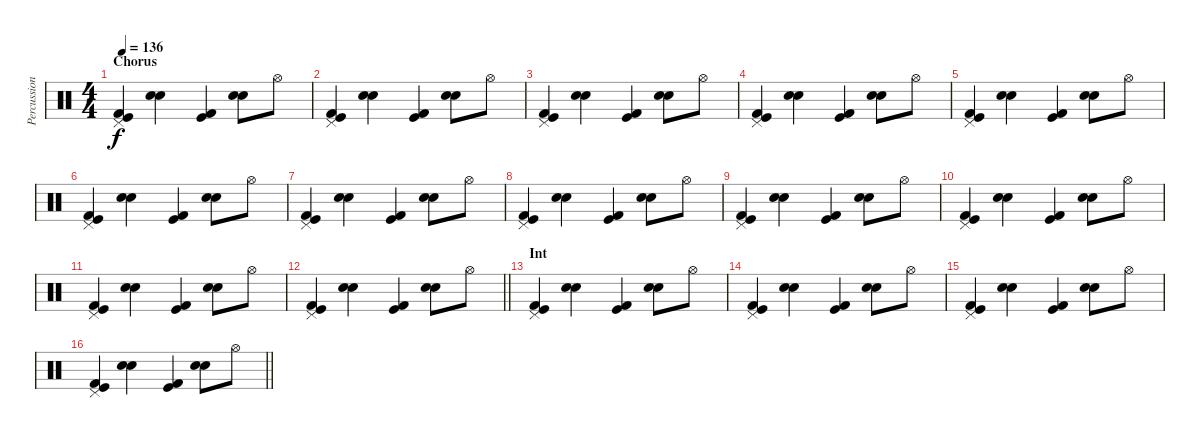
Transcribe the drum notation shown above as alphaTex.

\track ("Percussion" "Percussion") {instrument percussion}
\staff {score}
\articulation defaults
\ts (4 4)
\section ("" "Chorus")
\tempo 136
\clef neutral
\ks c
("Pedal Hi-Hat (hit)" "Kick (hit)" "Kick (hit) 2").4{dy f} ("Snare (hit) 2" "Electric Snare (hit)").4 ("Kick (hit)" "Kick (hit) 2").4 ("Snare (hit) 2" "Electric Snare (hit)").8 "Hi-Hat (open)".8 |
("Pedal Hi-Hat (hit)" "Kick (hit)" "Kick (hit) 2").4 ("Snare (hit) 2" "Electric Snare (hit)").4 ("Kick (hit)" "Kick (hit) 2").4 ("Snare (hit) 2" "Electric Snare (hit)").8 "Hi-Hat (open)".8 |
("Pedal Hi-Hat (hit)" "Kick (hit)" "Kick (hit) 2").4 ("Snare (hit) 2" "Electric Snare (hit)").4 ("Kick (hit)" "Kick (hit) 2").4 ("Snare (hit) 2" "Electric Snare (hit)").8 "Hi-Hat (open)".8 |
("Pedal Hi-Hat (hit)" "Kick (hit)" "Kick (hit) 2").4 ("Snare (hit) 2" "Electric Snare (hit)").4 ("Kick (hit)" "Kick (hit) 2").4 ("Snare (hit) 2" "Electric Snare (hit)").8 "Hi-Hat (open)".8 |
("Pedal Hi-Hat (hit)" "Kick (hit)" "Kick (hit) 2").4 ("Snare (hit) 2" "Electric Snare (hit)").4 ("Kick (hit)" "Kick (hit) 2").4 ("Snare (hit) 2" "Electric Snare (hit)").8 "Hi-Hat (open)".8 |
("Pedal Hi-Hat (hit)" "Kick (hit)" "Kick (hit) 2").4 ("Snare (hit) 2" "Electric Snare (hit)").4 ("Kick (hit)" "Kick (hit) 2").4 ("Snare (hit) 2" "Electric Snare (hit)").8 "Hi-Hat (open)".8 |
("Pedal Hi-Hat (hit)" "Kick (hit)" "Kick (hit) 2").4 ("Snare (hit) 2" "Electric Snare (hit)").4 ("Kick (hit)" "Kick (hit) 2").4 ("Snare (hit) 2" "Electric Snare (hit)").8 "Hi-Hat (open)".8 |
("Pedal Hi-Hat (hit)" "Kick (hit)" "Kick (hit) 2").4 ("Snare (hit) 2" "Electric Snare (hit)").4 ("Kick (hit)" "Kick (hit) 2").4 ("Snare (hit) 2" "Electric Snare (hit)").8 "Hi-Hat (open)".8 |
("Pedal Hi-Hat (hit)" "Kick (hit)" "Kick (hit) 2").4 ("Snare (hit) 2" "Electric Snare (hit)").4 ("Kick (hit)" "Kick (hit) 2").4 ("Snare (hit) 2" "Electric Snare (hit)").8 "Hi-Hat (open)".8 |
("Pedal Hi-Hat (hit)" "Kick (hit)" "Kick (hit) 2").4 ("Snare (hit) 2" "Electric Snare (hit)").4 ("Kick (hit)" "Kick (hit) 2").4 ("Snare (hit) 2" "Electric Snare (hit)").8 "Hi-Hat (open)".8 |
("Pedal Hi-Hat (hit)" "Kick (hit)" "Kick (hit) 2").4 ("Snare (hit) 2" "Electric Snare (hit)").4 ("Kick (hit)" "Kick (hit) 2").4 ("Snare (hit) 2" "Electric Snare (hit)").8 "Hi-Hat (open)".8 |
\barLineRight lightlight
("Pedal Hi-Hat (hit)" "Kick (hit)" "Kick (hit) 2").4 ("Snare (hit) 2" "Electric Snare (hit)").4 ("Kick (hit)" "Kick (hit) 2").4 ("Snare (hit) 2" "Electric Snare (hit)").8 "Hi-Hat (open)".8 |
\section ("" "Int")
("Pedal Hi-Hat (hit)" "Kick (hit)" "Kick (hit) 2").4 ("Snare (hit) 2" "Electric Snare (hit)").4 ("Kick (hit)" "Kick (hit) 2").4 ("Snare (hit) 2" "Electric Snare (hit)").8 "Hi-Hat (open)".8 |
("Pedal Hi-Hat (hit)" "Kick (hit)" "Kick (hit) 2").4 ("Snare (hit) 2" "Electric Snare (hit)").4 ("Kick (hit)" "Kick (hit) 2").4 ("Snare (hit) 2" "Electric Snare (hit)").8 "Hi-Hat (open)".8 |
("Pedal Hi-Hat (hit)" "Kick (hit)" "Kick (hit) 2").4 ("Snare (hit) 2" "Electric Snare (hit)").4 ("Kick (hit)" "Kick (hit) 2").4 ("Snare (hit) 2" "Electric Snare (hit)").8 "Hi-Hat (open)".8 |
\barLineRight lightlight
("Pedal Hi-Hat (hit)" "Kick (hit)" "Kick (hit) 2").4 ("Snare (hit) 2" "Electric Snare (hit)").4 ("Kick (hit)" "Kick (hit) 2").4 ("Snare (hit) 2" "Electric Snare (hit)").8 "Hi-Hat (open)".8
